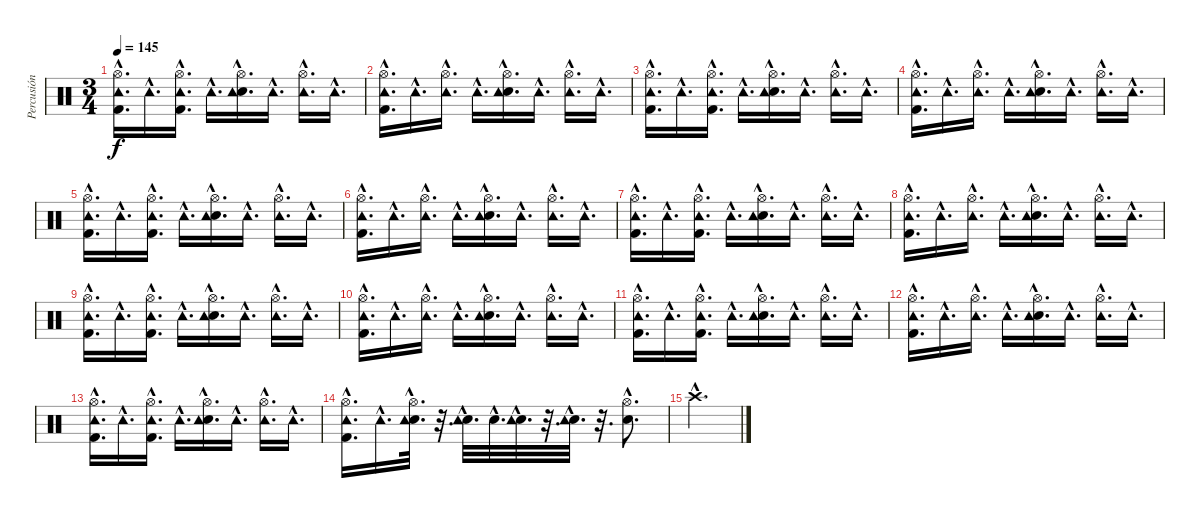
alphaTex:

\track ("Percusión" "Percusión") {instrument percussion}
\staff {score}
\articulation defaults
\ts (3 4)
\tempo 145
\clef neutral
\ks c
("Hi-Hat (open)"{hac} "Kick (hit) 2"{hac} "Tambourine (hit)"{hac}).16{d dy f} "Tambourine (hit)"{hac}.16{d} ("Hi-Hat (open)"{hac} "Kick (hit) 2"{hac} "Tambourine (hit)"{hac}).16{d} "Tambourine (hit)"{hac}.16{d} ("Hi-Hat (open)"{hac} "Electric Snare (hit)"{hac} "Tambourine (hit)"{hac}).16{d} "Tambourine (hit)"{hac}.16{d} ("Hi-Hat (open)"{hac} "Tambourine (hit)"{hac}).16{d} "Tambourine (hit)"{hac}.16{d} |
("Hi-Hat (open)"{hac} "Kick (hit) 2"{hac} "Tambourine (hit)"{hac}).16{d} "Tambourine (hit)"{hac}.16{d} ("Hi-Hat (open)"{hac} "Tambourine (hit)"{hac}).16{d} "Tambourine (hit)"{hac}.16{d} ("Hi-Hat (open)"{hac} "Electric Snare (hit)"{hac} "Tambourine (hit)"{hac}).16{d} "Tambourine (hit)"{hac}.16{d} ("Hi-Hat (open)"{hac} "Tambourine (hit)"{hac}).16{d} "Tambourine (hit)"{hac}.16{d} |
("Hi-Hat (open)"{hac} "Kick (hit) 2"{hac} "Tambourine (hit)"{hac}).16{d} "Tambourine (hit)"{hac}.16{d} ("Hi-Hat (open)"{hac} "Kick (hit) 2"{hac} "Tambourine (hit)"{hac}).16{d} "Tambourine (hit)"{hac}.16{d} ("Hi-Hat (open)"{hac} "Electric Snare (hit)"{hac} "Tambourine (hit)"{hac}).16{d} "Tambourine (hit)"{hac}.16{d} ("Hi-Hat (open)"{hac} "Tambourine (hit)"{hac}).16{d} "Tambourine (hit)"{hac}.16{d} |
("Hi-Hat (open)"{hac} "Kick (hit) 2"{hac} "Tambourine (hit)"{hac}).16{d} "Tambourine (hit)"{hac}.16{d} ("Hi-Hat (open)"{hac} "Tambourine (hit)"{hac}).16{d} "Tambourine (hit)"{hac}.16{d} ("Hi-Hat (open)"{hac} "Electric Snare (hit)"{hac} "Tambourine (hit)"{hac}).16{d} "Tambourine (hit)"{hac}.16{d} ("Hi-Hat (open)"{hac} "Tambourine (hit)"{hac}).16{d} "Tambourine (hit)"{hac}.16{d} |
("Hi-Hat (open)"{hac} "Kick (hit) 2"{hac} "Tambourine (hit)"{hac}).16{d} "Tambourine (hit)"{hac}.16{d} ("Hi-Hat (open)"{hac} "Kick (hit) 2"{hac} "Tambourine (hit)"{hac}).16{d} "Tambourine (hit)"{hac}.16{d} ("Hi-Hat (open)"{hac} "Electric Snare (hit)"{hac} "Tambourine (hit)"{hac}).16{d} "Tambourine (hit)"{hac}.16{d} ("Hi-Hat (open)"{hac} "Tambourine (hit)"{hac}).16{d} "Tambourine (hit)"{hac}.16{d} |
("Hi-Hat (open)"{hac} "Kick (hit) 2"{hac} "Tambourine (hit)"{hac}).16{d} "Tambourine (hit)"{hac}.16{d} ("Hi-Hat (open)"{hac} "Tambourine (hit)"{hac}).16{d} "Tambourine (hit)"{hac}.16{d} ("Hi-Hat (open)"{hac} "Electric Snare (hit)"{hac} "Tambourine (hit)"{hac}).16{d} "Tambourine (hit)"{hac}.16{d} ("Hi-Hat (open)"{hac} "Tambourine (hit)"{hac}).16{d} "Tambourine (hit)"{hac}.16{d} |
("Hi-Hat (open)"{hac} "Kick (hit) 2"{hac} "Tambourine (hit)"{hac}).16{d} "Tambourine (hit)"{hac}.16{d} ("Hi-Hat (open)"{hac} "Kick (hit) 2"{hac} "Tambourine (hit)"{hac}).16{d} "Tambourine (hit)"{hac}.16{d} ("Hi-Hat (open)"{hac} "Electric Snare (hit)"{hac} "Tambourine (hit)"{hac}).16{d} "Tambourine (hit)"{hac}.16{d} ("Hi-Hat (open)"{hac} "Tambourine (hit)"{hac}).16{d} "Tambourine (hit)"{hac}.16{d} |
("Hi-Hat (open)"{hac} "Kick (hit) 2"{hac} "Tambourine (hit)"{hac}).16{d} "Tambourine (hit)"{hac}.16{d} ("Hi-Hat (open)"{hac} "Tambourine (hit)"{hac}).16{d} "Tambourine (hit)"{hac}.16{d} ("Hi-Hat (open)"{hac} "Electric Snare (hit)"{hac} "Tambourine (hit)"{hac}).16{d} "Tambourine (hit)"{hac}.16{d} ("Hi-Hat (open)"{hac} "Tambourine (hit)"{hac}).16{d} "Tambourine (hit)"{hac}.16{d} |
("Hi-Hat (open)"{hac} "Kick (hit) 2"{hac} "Tambourine (hit)"{hac}).16{d} "Tambourine (hit)"{hac}.16{d} ("Hi-Hat (open)"{hac} "Kick (hit) 2"{hac} "Tambourine (hit)"{hac}).16{d} "Tambourine (hit)"{hac}.16{d} ("Hi-Hat (open)"{hac} "Electric Snare (hit)"{hac} "Tambourine (hit)"{hac}).16{d} "Tambourine (hit)"{hac}.16{d} ("Hi-Hat (open)"{hac} "Tambourine (hit)"{hac}).16{d} "Tambourine (hit)"{hac}.16{d} |
("Hi-Hat (open)"{hac} "Kick (hit) 2"{hac} "Tambourine (hit)"{hac}).16{d} "Tambourine (hit)"{hac}.16{d} ("Hi-Hat (open)"{hac} "Tambourine (hit)"{hac}).16{d} "Tambourine (hit)"{hac}.16{d} ("Hi-Hat (open)"{hac} "Electric Snare (hit)"{hac} "Tambourine (hit)"{hac}).16{d} "Tambourine (hit)"{hac}.16{d} ("Hi-Hat (open)"{hac} "Tambourine (hit)"{hac}).16{d} "Tambourine (hit)"{hac}.16{d} |
("Hi-Hat (open)"{hac} "Kick (hit) 2"{hac} "Tambourine (hit)"{hac}).16{d} "Tambourine (hit)"{hac}.16{d} ("Hi-Hat (open)"{hac} "Kick (hit) 2"{hac} "Tambourine (hit)"{hac}).16{d} "Tambourine (hit)"{hac}.16{d} ("Hi-Hat (open)"{hac} "Electric Snare (hit)"{hac} "Tambourine (hit)"{hac}).16{d} "Tambourine (hit)"{hac}.16{d} ("Hi-Hat (open)"{hac} "Tambourine (hit)"{hac}).16{d} "Tambourine (hit)"{hac}.16{d} |
("Hi-Hat (open)"{hac} "Kick (hit) 2"{hac} "Tambourine (hit)"{hac}).16{d} "Tambourine (hit)"{hac}.16{d} ("Hi-Hat (open)"{hac} "Tambourine (hit)"{hac}).16{d} "Tambourine (hit)"{hac}.16{d} ("Hi-Hat (open)"{hac} "Electric Snare (hit)"{hac} "Tambourine (hit)"{hac}).16{d} "Tambourine (hit)"{hac}.16{d} ("Hi-Hat (open)"{hac} "Tambourine (hit)"{hac}).16{d} "Tambourine (hit)"{hac}.16{d} |
("Hi-Hat (open)"{hac} "Kick (hit) 2"{hac} "Tambourine (hit)"{hac}).16{d} "Tambourine (hit)"{hac}.16{d} ("Hi-Hat (open)"{hac} "Kick (hit) 2"{hac} "Tambourine (hit)"{hac}).16{d} "Tambourine (hit)"{hac}.16{d} ("Hi-Hat (open)"{hac} "Electric Snare (hit)"{hac} "Tambourine (hit)"{hac}).16{d} "Tambourine (hit)"{hac}.16{d} ("Hi-Hat (open)"{hac} "Tambourine (hit)"{hac}).16{d} "Tambourine (hit)"{hac}.16{d} |
("Hi-Hat (open)"{hac} "Kick (hit) 2"{hac} "Tambourine (hit)"{hac}).16{d} "Tambourine (hit)"{hac}.16{d} ("Hi-Hat (open)"{hac} "Electric Snare (hit)"{hac} "Tambourine (hit)"{hac}).32{d} r.32{d} ("Electric Snare (hit)"{hac} "Tambourine (hit)"{hac}).32{d} "Electric Snare (hit)"{hac}.32{d} ("Electric Snare (hit)"{hac} "Tambourine (hit)"{hac}).32{d} r.32{d} ("Electric Snare (hit)"{hac} "Tambourine (hit)"{hac}).32{d} r.32{d} ("Hi-Hat (open)"{hac} "Electric Snare (hit)"{hac}).8{d} |
"Crash high (hit)"{hac}.2{d}
